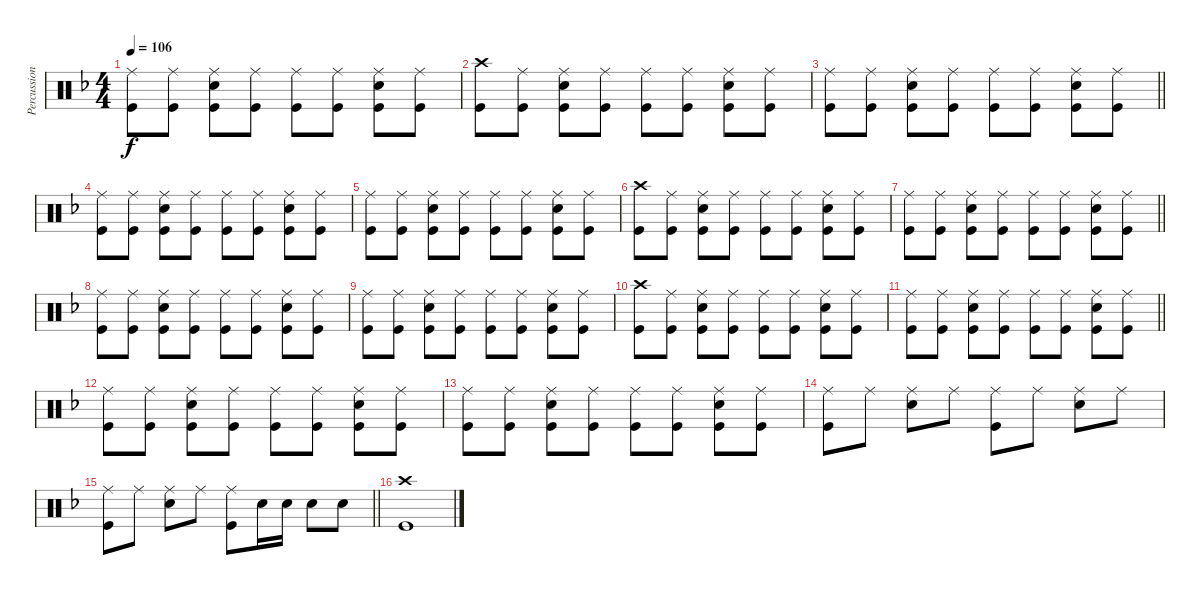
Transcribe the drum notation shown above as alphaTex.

\track ("Percussion" "Percussion") {instrument percussion}
\staff {score}
\articulation defaults
\ts (4 4)
\tempo 106
\clef neutral
\ks dminor
("Ride (middle)" "Kick (hit)").8{dy f} ("Ride (middle)" "Kick (hit)").8 ("Ride (middle)" "Snare (hit) 2" "Kick (hit)").8 ("Ride (middle)" "Kick (hit)").8 ("Ride (middle)" "Kick (hit)").8 ("Ride (middle)" "Kick (hit)").8 ("Ride (middle)" "Snare (hit) 2" "Kick (hit)").8 ("Ride (middle)" "Kick (hit)").8 |
("Crash high (hit)" "Kick (hit)").8 ("Ride (middle)" "Kick (hit)").8 ("Ride (middle)" "Snare (hit) 2" "Kick (hit)").8 ("Ride (middle)" "Kick (hit)").8 ("Ride (middle)" "Kick (hit)").8 ("Ride (middle)" "Kick (hit)").8 ("Ride (middle)" "Snare (hit) 2" "Kick (hit)").8 ("Ride (middle)" "Kick (hit)").8 |
\barLineRight lightlight
("Ride (middle)" "Kick (hit)").8 ("Ride (middle)" "Kick (hit)").8 ("Ride (middle)" "Snare (hit) 2" "Kick (hit)").8 ("Ride (middle)" "Kick (hit)").8 ("Ride (middle)" "Kick (hit)").8 ("Ride (middle)" "Kick (hit)").8 ("Ride (middle)" "Snare (hit) 2" "Kick (hit)").8 ("Ride (middle)" "Kick (hit)").8 |
("Ride (middle)" "Kick (hit)").8 ("Ride (middle)" "Kick (hit)").8 ("Ride (middle)" "Snare (hit) 2" "Kick (hit)").8 ("Ride (middle)" "Kick (hit)").8 ("Ride (middle)" "Kick (hit)").8 ("Ride (middle)" "Kick (hit)").8 ("Ride (middle)" "Snare (hit) 2" "Kick (hit)").8 ("Ride (middle)" "Kick (hit)").8 |
("Ride (middle)" "Kick (hit)").8 ("Ride (middle)" "Kick (hit)").8 ("Ride (middle)" "Snare (hit) 2" "Kick (hit)").8 ("Ride (middle)" "Kick (hit)").8 ("Ride (middle)" "Kick (hit)").8 ("Ride (middle)" "Kick (hit)").8 ("Ride (middle)" "Snare (hit) 2" "Kick (hit)").8 ("Ride (middle)" "Kick (hit)").8 |
("Crash high (hit)" "Kick (hit)").8 ("Ride (middle)" "Kick (hit)").8 ("Ride (middle)" "Snare (hit) 2" "Kick (hit)").8 ("Ride (middle)" "Kick (hit)").8 ("Ride (middle)" "Kick (hit)").8 ("Ride (middle)" "Kick (hit)").8 ("Ride (middle)" "Snare (hit) 2" "Kick (hit)").8 ("Ride (middle)" "Kick (hit)").8 |
\barLineRight lightlight
("Ride (middle)" "Kick (hit)").8 ("Ride (middle)" "Kick (hit)").8 ("Ride (middle)" "Snare (hit) 2" "Kick (hit)").8 ("Ride (middle)" "Kick (hit)").8 ("Ride (middle)" "Kick (hit)").8 ("Ride (middle)" "Kick (hit)").8 ("Ride (middle)" "Snare (hit) 2" "Kick (hit)").8 ("Ride (middle)" "Kick (hit)").8 |
("Ride (middle)" "Kick (hit)").8 ("Ride (middle)" "Kick (hit)").8 ("Ride (middle)" "Snare (hit) 2" "Kick (hit)").8 ("Ride (middle)" "Kick (hit)").8 ("Ride (middle)" "Kick (hit)").8 ("Ride (middle)" "Kick (hit)").8 ("Ride (middle)" "Snare (hit) 2" "Kick (hit)").8 ("Ride (middle)" "Kick (hit)").8 |
("Ride (middle)" "Kick (hit)").8 ("Ride (middle)" "Kick (hit)").8 ("Ride (middle)" "Snare (hit) 2" "Kick (hit)").8 ("Ride (middle)" "Kick (hit)").8 ("Ride (middle)" "Kick (hit)").8 ("Ride (middle)" "Kick (hit)").8 ("Ride (middle)" "Snare (hit) 2" "Kick (hit)").8 ("Ride (middle)" "Kick (hit)").8 |
("Crash high (hit)" "Kick (hit)").8 ("Ride (middle)" "Kick (hit)").8 ("Ride (middle)" "Snare (hit) 2" "Kick (hit)").8 ("Ride (middle)" "Kick (hit)").8 ("Ride (middle)" "Kick (hit)").8 ("Ride (middle)" "Kick (hit)").8 ("Ride (middle)" "Snare (hit) 2" "Kick (hit)").8 ("Ride (middle)" "Kick (hit)").8 |
\barLineRight lightlight
("Ride (middle)" "Kick (hit)").8 ("Ride (middle)" "Kick (hit)").8 ("Ride (middle)" "Snare (hit) 2" "Kick (hit)").8 ("Ride (middle)" "Kick (hit)").8 ("Ride (middle)" "Kick (hit)").8 ("Ride (middle)" "Kick (hit)").8 ("Ride (middle)" "Snare (hit) 2" "Kick (hit)").8 ("Ride (middle)" "Kick (hit)").8 |
("Ride (middle)" "Kick (hit)").8 ("Ride (middle)" "Kick (hit)").8 ("Ride (middle)" "Snare (hit) 2" "Kick (hit)").8 ("Ride (middle)" "Kick (hit)").8 ("Ride (middle)" "Kick (hit)").8 ("Ride (middle)" "Kick (hit)").8 ("Ride (middle)" "Snare (hit) 2" "Kick (hit)").8 ("Ride (middle)" "Kick (hit)").8 |
("Ride (middle)" "Kick (hit)").8 ("Ride (middle)" "Kick (hit)").8 ("Ride (middle)" "Snare (hit) 2" "Kick (hit)").8 ("Ride (middle)" "Kick (hit)").8 ("Ride (middle)" "Kick (hit)").8 ("Ride (middle)" "Kick (hit)").8 ("Ride (middle)" "Snare (hit) 2" "Kick (hit)").8 ("Ride (middle)" "Kick (hit)").8 |
("Ride (middle)" "Kick (hit)").8 "Ride (middle)".8 ("Ride (middle)" "Snare (hit) 2").8 "Ride (middle)".8 ("Ride (middle)" "Kick (hit)").8 "Ride (middle)".8 ("Ride (middle)" "Snare (hit) 2").8 "Ride (middle)".8 |
\barLineRight lightlight
("Ride (middle)" "Kick (hit)").8 "Ride (middle)".8 ("Ride (middle)" "Snare (hit) 2").8 "Ride (middle)".8 ("Ride (middle)" "Kick (hit)").8 "Snare (hit) 2".16 "Snare (hit) 2".16 "Snare (hit) 2".8 "Snare (hit) 2".8 |
("Crash high (hit)" "Kick (hit)").1
